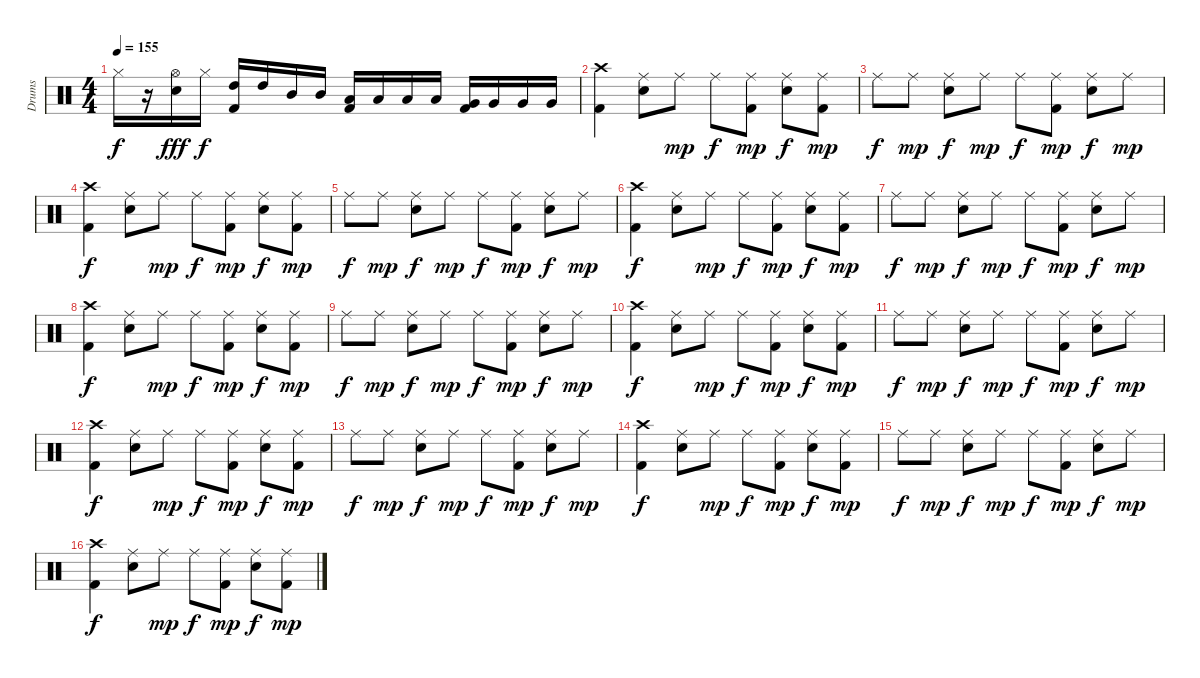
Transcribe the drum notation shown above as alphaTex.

\track ("Drums" "Drums") {instrument percussion}
\staff {score}
\articulation defaults
\ts (4 4)
\tempo 155
\clef neutral
\ks c "Hi-Hat (closed)".16{dy f}
r.16 ("Hi-Hat (open)" "Electric Snare (hit)").16{dy fff} "Hi-Hat (closed)".16{dy f} ("Kick (hit) 2" "High Tom (hit)").16 "High Tom (hit)".16 "Mid Tom (hit)".16 "Mid Tom (hit)".16 ("Low Tom (hit)" "Kick (hit) 2").16 "Low Tom (hit)".16 "Low Tom (hit)".16 "Low Tom (hit)".16 ("Kick (hit) 2" "Very Low Tom (hit)").16 "Very Low Tom (hit)".16 "Very Low Tom (hit)".16 "Very Low Tom (hit)".16 |
("Kick (hit) 2" "Crash high (hit)").4 ("Ride (middle)" "Electric Snare (hit)").8 "Ride (middle)".8{dy mp} "Ride (middle)".8{dy f} ("Kick (hit) 2" "Ride (middle)").8{dy mp} ("Electric Snare (hit)" "Ride (middle)").8{dy f} ("Kick (hit) 2" "Ride (middle)").8{dy mp} |
"Ride (middle)".8{dy f} "Ride (middle)".8{dy mp} ("Electric Snare (hit)" "Ride (middle)").8{dy f} "Ride (middle)".8{dy mp} "Ride (middle)".8{dy f} ("Kick (hit) 2" "Ride (middle)").8{dy mp} ("Electric Snare (hit)" "Ride (middle)").8{dy f} "Ride (middle)".8{dy mp} |
("Kick (hit) 2" "Crash high (hit)").4{dy f} ("Ride (middle)" "Electric Snare (hit)").8 "Ride (middle)".8{dy mp} "Ride (middle)".8{dy f} ("Kick (hit) 2" "Ride (middle)").8{dy mp} ("Electric Snare (hit)" "Ride (middle)").8{dy f} ("Kick (hit) 2" "Ride (middle)").8{dy mp} |
"Ride (middle)".8{dy f} "Ride (middle)".8{dy mp} ("Electric Snare (hit)" "Ride (middle)").8{dy f} "Ride (middle)".8{dy mp} "Ride (middle)".8{dy f} ("Kick (hit) 2" "Ride (middle)").8{dy mp} ("Electric Snare (hit)" "Ride (middle)").8{dy f} "Ride (middle)".8{dy mp} |
("Kick (hit) 2" "Crash high (hit)").4{dy f} ("Ride (middle)" "Electric Snare (hit)").8 "Ride (middle)".8{dy mp} "Ride (middle)".8{dy f} ("Kick (hit) 2" "Ride (middle)").8{dy mp} ("Electric Snare (hit)" "Ride (middle)").8{dy f} ("Kick (hit) 2" "Ride (middle)").8{dy mp} |
"Ride (middle)".8{dy f} "Ride (middle)".8{dy mp} ("Electric Snare (hit)" "Ride (middle)").8{dy f} "Ride (middle)".8{dy mp} "Ride (middle)".8{dy f} ("Kick (hit) 2" "Ride (middle)").8{dy mp} ("Electric Snare (hit)" "Ride (middle)").8{dy f} "Ride (middle)".8{dy mp} |
("Kick (hit) 2" "Crash high (hit)").4{dy f} ("Ride (middle)" "Electric Snare (hit)").8 "Ride (middle)".8{dy mp} "Ride (middle)".8{dy f} ("Kick (hit) 2" "Ride (middle)").8{dy mp} ("Electric Snare (hit)" "Ride (middle)").8{dy f} ("Kick (hit) 2" "Ride (middle)").8{dy mp} |
"Ride (middle)".8{dy f} "Ride (middle)".8{dy mp} ("Electric Snare (hit)" "Ride (middle)").8{dy f} "Ride (middle)".8{dy mp} "Ride (middle)".8{dy f} ("Kick (hit) 2" "Ride (middle)").8{dy mp} ("Electric Snare (hit)" "Ride (middle)").8{dy f} "Ride (middle)".8{dy mp} |
("Kick (hit) 2" "Crash high (hit)").4{dy f} ("Ride (middle)" "Electric Snare (hit)").8 "Ride (middle)".8{dy mp} "Ride (middle)".8{dy f} ("Kick (hit) 2" "Ride (middle)").8{dy mp} ("Electric Snare (hit)" "Ride (middle)").8{dy f} ("Kick (hit) 2" "Ride (middle)").8{dy mp} |
"Ride (middle)".8{dy f} "Ride (middle)".8{dy mp} ("Electric Snare (hit)" "Ride (middle)").8{dy f} "Ride (middle)".8{dy mp} "Ride (middle)".8{dy f} ("Kick (hit) 2" "Ride (middle)").8{dy mp} ("Electric Snare (hit)" "Ride (middle)").8{dy f} "Ride (middle)".8{dy mp} |
("Kick (hit) 2" "Crash high (hit)").4{dy f} ("Ride (middle)" "Electric Snare (hit)").8 "Ride (middle)".8{dy mp} "Ride (middle)".8{dy f} ("Kick (hit) 2" "Ride (middle)").8{dy mp} ("Electric Snare (hit)" "Ride (middle)").8{dy f} ("Kick (hit) 2" "Ride (middle)").8{dy mp} |
"Ride (middle)".8{dy f} "Ride (middle)".8{dy mp} ("Electric Snare (hit)" "Ride (middle)").8{dy f} "Ride (middle)".8{dy mp} "Ride (middle)".8{dy f} ("Kick (hit) 2" "Ride (middle)").8{dy mp} ("Electric Snare (hit)" "Ride (middle)").8{dy f} "Ride (middle)".8{dy mp} |
("Kick (hit) 2" "Crash high (hit)").4{dy f} ("Ride (middle)" "Electric Snare (hit)").8 "Ride (middle)".8{dy mp} "Ride (middle)".8{dy f} ("Kick (hit) 2" "Ride (middle)").8{dy mp} ("Electric Snare (hit)" "Ride (middle)").8{dy f} ("Kick (hit) 2" "Ride (middle)").8{dy mp} |
"Ride (middle)".8{dy f} "Ride (middle)".8{dy mp} ("Electric Snare (hit)" "Ride (middle)").8{dy f} "Ride (middle)".8{dy mp} "Ride (middle)".8{dy f} ("Kick (hit) 2" "Ride (middle)").8{dy mp} ("Electric Snare (hit)" "Ride (middle)").8{dy f} "Ride (middle)".8{dy mp} |
("Kick (hit) 2" "Crash high (hit)").4{dy f} ("Ride (middle)" "Electric Snare (hit)").8 "Ride (middle)".8{dy mp} "Ride (middle)".8{dy f} ("Kick (hit) 2" "Ride (middle)").8{dy mp} ("Electric Snare (hit)" "Ride (middle)").8{dy f} ("Kick (hit) 2" "Ride (middle)").8{dy mp}
